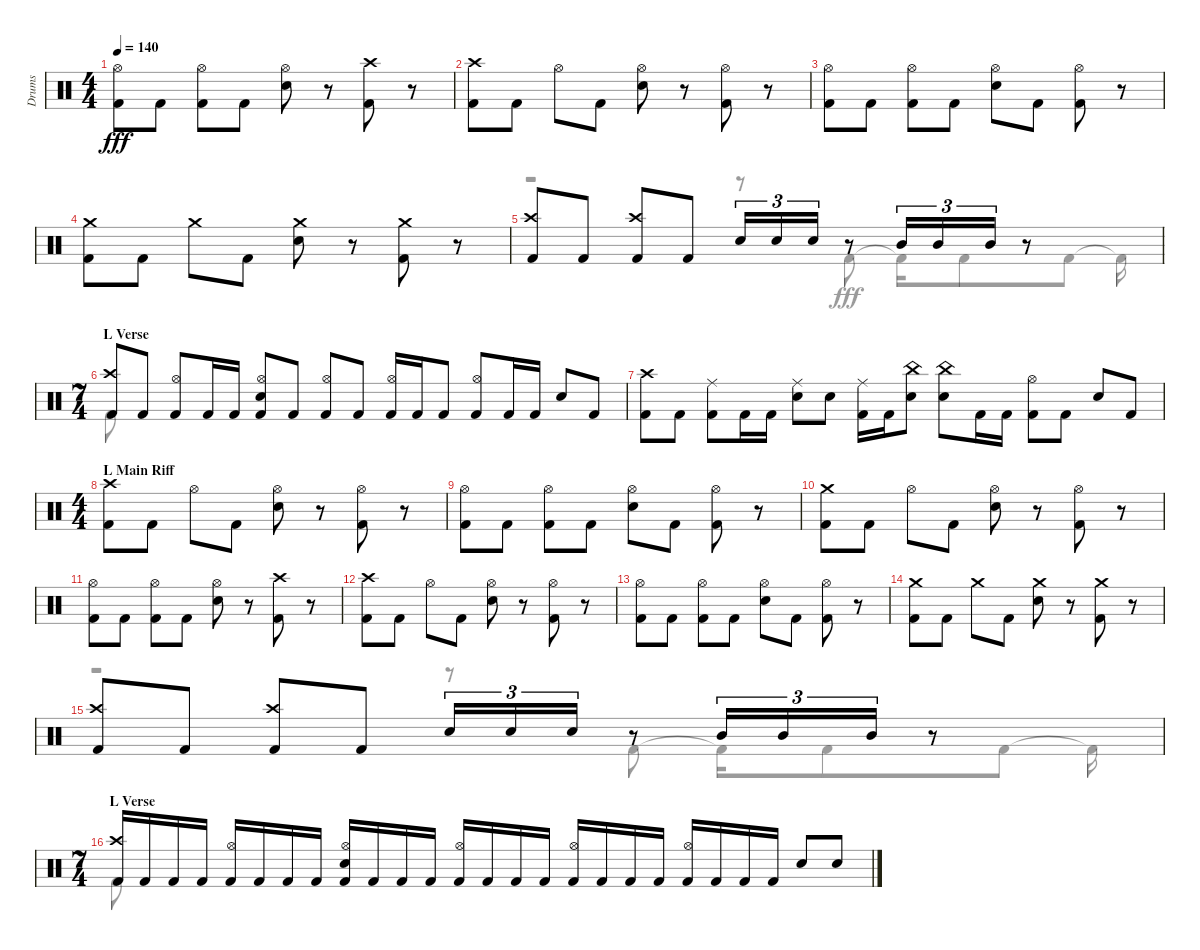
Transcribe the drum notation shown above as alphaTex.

\track ("Drums" "Drums") {instrument percussion}
\staff {score}
\articulation defaults
\voice
\ts (4 4)
\tempo 140
\clef neutral
\ks aminor
("Kick (hit) 2" "Hi-Hat (open)").8{dy fff} "Kick (hit) 2".8 ("Hi-Hat (open)" "Kick (hit) 2").8 "Kick (hit) 2".8 ("Hi-Hat (open)" "Snare (hit) 2").8 r.8 ("Kick (hit) 2" "Crash high (hit)").8 r.8 |
("Kick (hit) 2" "Crash high (hit)").8 "Kick (hit) 2".8 "Hi-Hat (open)".8 "Kick (hit) 2".8 ("Hi-Hat (open)" "Snare (hit) 2").8 r.8 ("Kick (hit) 2" "Hi-Hat (open)").8 r.8 |
("Kick (hit) 2" "Hi-Hat (open)").8 "Kick (hit) 2".8 ("Kick (hit) 2" "Hi-Hat (open)").8 "Kick (hit) 2".8 ("Hi-Hat (open)" "Snare (hit) 2").8 "Kick (hit) 2".8 ("Hi-Hat (open)" "Kick (hit) 2").8 r.8 |
("Kick (hit) 2" "Crash medium (hit)").8 "Kick (hit) 2".8 "Crash medium (hit)".8 "Kick (hit) 2".8 ("Snare (hit) 2" "Crash medium (hit)").8 r.8 ("Crash medium (hit)" "Kick (hit) 2").8 r.8 |
("Kick (hit) 2" "Crash high (hit)").8 "Kick (hit) 2".8 ("Kick (hit) 2" "Crash high (hit)").8 "Kick (hit) 2".8 "Snare (hit) 2".16{tu (3 2)} "Snare (hit) 2".16{tu (3 2)} "Snare (hit) 2".16{tu (3 2)} r.8 "Mid Tom (hit)".16{tu (3 2)} "Mid Tom (hit)".16{tu (3 2)} "Mid Tom (hit)".16{tu (3 2)} r.8 |
\ts (7 4)
\section ("" "L Verse")
("Crash high (hit)" "Kick (hit) 2").8 "Kick (hit) 2".8 ("Kick (hit) 2" "Hi-Hat (open)").8 "Kick (hit) 2".16 "Kick (hit) 2".16 ("Snare (hit) 2" "Kick (hit) 2" "Hi-Hat (open)").8 "Kick (hit) 2".8 ("Hi-Hat (open)" "Kick (hit) 2").8 "Kick (hit) 2".8 ("Kick (hit) 2" "Hi-Hat (open)").16 "Kick (hit) 2".16 "Kick (hit) 2".8 ("Hi-Hat (open)" "Kick (hit) 2").8 "Kick (hit) 2".16 "Kick (hit) 2".16 "Snare (hit) 2".8 "Kick (hit) 2".8 |
("Crash high (hit)" "Kick (hit) 2").8 "Kick (hit) 2".8 ("Ride (middle)" "Kick (hit) 2").8 "Kick (hit) 2".16 "Kick (hit) 2".16 ("Snare (hit) 2" "Ride (middle)").8 "Snare (hit) 2".8 ("Ride (middle)" "Kick (hit) 2").16 "Kick (hit) 2".16 ("Snare (hit) 2" "China (hit)").8 ("Snare (hit) 2" "China (hit)").8 "Kick (hit) 2".16 "Kick (hit) 2".16 ("Kick (hit) 2" "Hi-Hat (open)").8 "Kick (hit) 2".8 "Snare (hit) 2".8 "Kick (hit) 2".8 |
\ts (4 4)
\section ("" "L Main Riff")
("Crash high (hit)" "Kick (hit) 2").8 "Kick (hit) 2".8 "Hi-Hat (open)".8 "Kick (hit) 2".8 ("Snare (hit) 2" "Hi-Hat (open)").8 r.8 ("Hi-Hat (open)" "Kick (hit) 2").8 r.8 |
("Hi-Hat (open)" "Kick (hit) 2").8 "Kick (hit) 2".8 ("Kick (hit) 2" "Hi-Hat (open)").8 "Kick (hit) 2".8 ("Snare (hit) 2" "Hi-Hat (open)").8 "Kick (hit) 2".8 ("Hi-Hat (open)" "Kick (hit) 2").8 r.8 |
("Crash medium (hit)" "Kick (hit) 2").8 "Kick (hit) 2".8 "Hi-Hat (open)".8 "Kick (hit) 2".8 ("Snare (hit) 2" "Hi-Hat (open)").8 r.8 ("Hi-Hat (open)" "Kick (hit) 2").8 r.8 |
("Kick (hit) 2" "Hi-Hat (open)").8 "Kick (hit) 2".8 ("Hi-Hat (open)" "Kick (hit) 2").8 "Kick (hit) 2".8 ("Hi-Hat (open)" "Snare (hit) 2").8 r.8 ("Kick (hit) 2" "Crash high (hit)").8 r.8 |
("Crash high (hit)" "Kick (hit) 2").8 "Kick (hit) 2".8 "Hi-Hat (open)".8 "Kick (hit) 2".8 ("Hi-Hat (open)" "Snare (hit) 2").8 r.8 ("Kick (hit) 2" "Hi-Hat (open)").8 r.8 |
("Hi-Hat (open)" "Kick (hit) 2").8 "Kick (hit) 2".8 ("Hi-Hat (open)" "Kick (hit) 2").8 "Kick (hit) 2".8 ("Snare (hit) 2" "Hi-Hat (open)").8 "Kick (hit) 2".8 ("Kick (hit) 2" "Hi-Hat (open)").8 r.8 |
("Kick (hit) 2" "Crash medium (hit)").8 "Kick (hit) 2".8 "Crash medium (hit)".8 "Kick (hit) 2".8 ("Crash medium (hit)" "Snare (hit) 2").8 r.8 ("Crash medium (hit)" "Kick (hit) 2").8 r.8 |
("Crash high (hit)" "Kick (hit) 2").8 "Kick (hit) 2".8 ("Kick (hit) 2" "Crash high (hit)").8 "Kick (hit) 2".8 "Snare (hit) 2".16{tu (3 2)} "Snare (hit) 2".16{tu (3 2)} "Snare (hit) 2".16{tu (3 2)} r.8 "Mid Tom (hit)".16{tu (3 2)} "Mid Tom (hit)".16{tu (3 2)} "Mid Tom (hit)".16{tu (3 2)} r.8 |
\ts (7 4)
\section ("" "L Verse")
("Crash high (hit)" "Kick (hit) 2").16 "Kick (hit) 2".16 "Kick (hit) 2".16 "Kick (hit) 2".16 ("Kick (hit) 2" "Hi-Hat (open)").16 "Kick (hit) 2".16 "Kick (hit) 2".16 "Kick (hit) 2".16 ("Kick (hit) 2" "Snare (hit) 2" "Hi-Hat (open)").16 "Kick (hit) 2".16 "Kick (hit) 2".16 "Kick (hit) 2".16 ("Hi-Hat (open)" "Kick (hit) 2").16 "Kick (hit) 2".16 "Kick (hit) 2".16 "Kick (hit) 2".16 ("Kick (hit) 2" "Hi-Hat (open)").16 "Kick (hit) 2".16 "Kick (hit) 2".16 "Kick (hit) 2".16 ("Hi-Hat (open)" "Kick (hit) 2").16 "Kick (hit) 2".16 "Kick (hit) 2".16 "Kick (hit) 2".16 "Snare (hit) 2".8 "Snare (hit) 2".8
\voice
\clef neutral
\ottava regular
\simile none
\ks aminor
|
|
|
|
r.2 r.8 "Kick (hit) 2".8 "Kick (hit) 2"{t}.16 "Kick (hit) 2".8 "Kick (hit) 2".8 "Kick (hit) 2"{t}.16 |
"Kick (hit) 2".8 |
|
|
|
|
|
|
|
|
r.2 r.8 "Kick (hit) 2".8 "Kick (hit) 2"{t}.16 "Kick (hit) 2".8 "Kick (hit) 2".8 "Kick (hit) 2"{t}.16 |
"Kick (hit) 2".8
